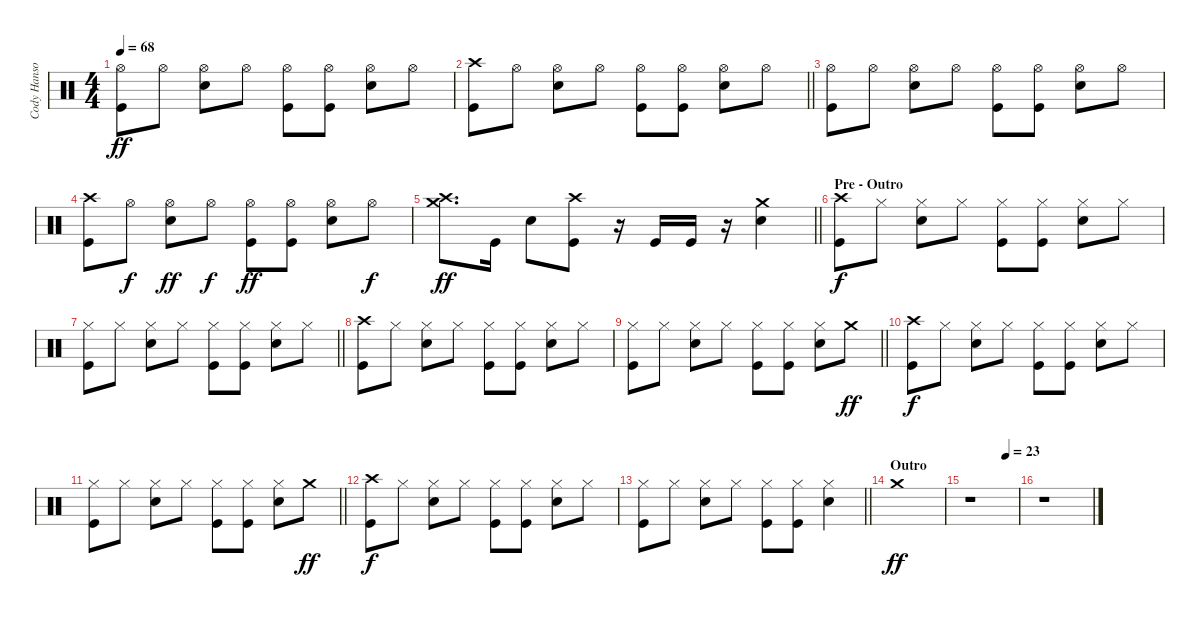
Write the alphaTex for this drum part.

\track ("Cody Hanson (Drums)" "Cody Hanso") {instrument percussion}
\staff {score}
\articulation defaults
\ts (4 4)
\tempo 68
\clef neutral
\ks c
("Hi-Hat (open)" "Kick (hit)").8{dy ff} "Hi-Hat (open)".8 ("Hi-Hat (open)" "Snare (hit) 2").8 "Hi-Hat (open)".8 ("Hi-Hat (open)" "Kick (hit)").8 ("Hi-Hat (open)" "Kick (hit)").8 ("Hi-Hat (open)" "Snare (hit) 2").8 "Hi-Hat (open)".8 |
\barLineRight lightlight
("Crash high (hit)" "Kick (hit)").8 "Hi-Hat (open)".8 ("Hi-Hat (open)" "Snare (hit) 2").8 "Hi-Hat (open)".8 ("Hi-Hat (open)" "Kick (hit)").8 ("Hi-Hat (open)" "Kick (hit)").8 ("Hi-Hat (open)" "Snare (hit) 2").8 "Hi-Hat (open)".8 |
("Hi-Hat (open)" "Kick (hit)").8 "Hi-Hat (open)".8 ("Hi-Hat (open)" "Snare (hit) 2").8 "Hi-Hat (open)".8 ("Hi-Hat (open)" "Kick (hit)").8 ("Hi-Hat (open)" "Kick (hit)").8 ("Hi-Hat (open)" "Snare (hit) 2").8 "Hi-Hat (open)".8 |
("Crash high (hit)" "Kick (hit)").8 "Hi-Hat (open)".8{dy f} ("Hi-Hat (open)" "Snare (hit) 2").8{dy ff} "Hi-Hat (open)".8{dy f} ("Hi-Hat (open)" "Kick (hit)").8{dy ff} ("Hi-Hat (open)" "Kick (hit)").8 ("Hi-Hat (open)" "Snare (hit) 2").8 "Hi-Hat (open)".8{dy f} |
\barLineRight lightlight
("Crash high (hit)" "Crash medium (hit)").8{d dy ff} "Kick (hit)".16 "Snare (hit) 2".8 ("Crash high (hit)" "Kick (hit)").8 r.16 "Kick (hit)".16 "Kick (hit)".16 r.16 ("Crash medium (hit)" "Snare (hit) 2").4 |
\section ("" "Pre - Outro")
("Crash high (hit)" "Kick (hit)").8{dy f} "Hi-Hat (closed)".8 ("Hi-Hat (closed)" "Snare (hit) 2").8 "Hi-Hat (closed)".8 ("Hi-Hat (closed)" "Kick (hit)").8 ("Hi-Hat (closed)" "Kick (hit)").8 ("Hi-Hat (closed)" "Snare (hit) 2").8 "Hi-Hat (closed)".8 |
\barLineRight lightlight
("Hi-Hat (closed)" "Kick (hit)").8 "Hi-Hat (closed)".8 ("Hi-Hat (closed)" "Snare (hit) 2").8 "Hi-Hat (closed)".8 ("Hi-Hat (closed)" "Kick (hit)").8 ("Hi-Hat (closed)" "Kick (hit)").8 ("Hi-Hat (closed)" "Snare (hit) 2").8 "Hi-Hat (closed)".8 |
("Crash high (hit)" "Kick (hit)").8 "Hi-Hat (closed)".8 ("Hi-Hat (closed)" "Snare (hit) 2").8 "Hi-Hat (closed)".8 ("Hi-Hat (closed)" "Kick (hit)").8 ("Hi-Hat (closed)" "Kick (hit)").8 ("Hi-Hat (closed)" "Snare (hit) 2").8 "Hi-Hat (closed)".8 |
\barLineRight lightlight
("Hi-Hat (closed)" "Kick (hit)").8 "Hi-Hat (closed)".8 ("Hi-Hat (closed)" "Snare (hit) 2").8 "Hi-Hat (closed)".8 ("Hi-Hat (closed)" "Kick (hit)").8 ("Hi-Hat (closed)" "Kick (hit)").8 ("Hi-Hat (closed)" "Snare (hit) 2").8 "Crash medium (hit)".8{dy ff} |
("Crash high (hit)" "Kick (hit)").8{dy f} "Hi-Hat (closed)".8 ("Hi-Hat (closed)" "Snare (hit) 2").8 "Hi-Hat (closed)".8 ("Hi-Hat (closed)" "Kick (hit)").8 ("Hi-Hat (closed)" "Kick (hit)").8 ("Hi-Hat (closed)" "Snare (hit) 2").8 "Hi-Hat (closed)".8 |
\barLineRight lightlight
("Hi-Hat (closed)" "Kick (hit)").8 "Hi-Hat (closed)".8 ("Hi-Hat (closed)" "Snare (hit) 2").8 "Hi-Hat (closed)".8 ("Hi-Hat (closed)" "Kick (hit)").8 ("Hi-Hat (closed)" "Kick (hit)").8 ("Hi-Hat (closed)" "Snare (hit) 2").8 "Crash medium (hit)".8{dy ff} |
("Crash high (hit)" "Kick (hit)").8{dy f} "Hi-Hat (closed)".8 ("Hi-Hat (closed)" "Snare (hit) 2").8 "Hi-Hat (closed)".8 ("Hi-Hat (closed)" "Kick (hit)").8 ("Hi-Hat (closed)" "Kick (hit)").8 ("Hi-Hat (closed)" "Snare (hit) 2").8 "Hi-Hat (closed)".8 |
\barLineRight lightlight
("Hi-Hat (closed)" "Kick (hit)").8 "Hi-Hat (closed)".8 ("Hi-Hat (closed)" "Snare (hit) 2").8 "Hi-Hat (closed)".8 ("Hi-Hat (closed)" "Kick (hit)").8 ("Hi-Hat (closed)" "Kick (hit)").8 ("Hi-Hat (closed)" "Snare (hit) 2").4 |
\section ("" "Outro")
"Crash medium (hit)".1{dy ff} |
\tempo (23 0.75)
r.1 |
r.1
